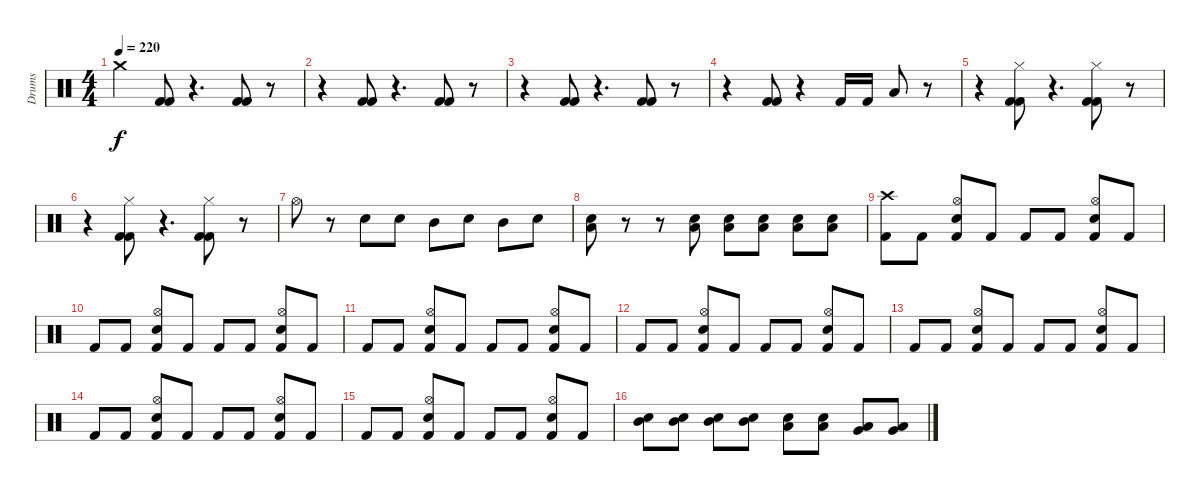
\track ("Drums" "Drums") {instrument percussion}
\staff {score}
\articulation defaults
\ts (4 4)
\tempo 220
\clef neutral
\ks c "Crash medium (hit)".4{dy f}
("Kick (hit) 2" "Kick (hit) 2").8 r.4{d} ("Kick (hit) 2" "Kick (hit) 2").8 r.8 |
r.4 ("Kick (hit) 2" "Kick (hit) 2").8 r.4{d} ("Kick (hit) 2" "Kick (hit) 2").8 r.8 |
r.4 ("Kick (hit) 2" "Kick (hit) 2").8 r.4{d} ("Kick (hit) 2" "Kick (hit) 2").8 r.8 |
r.4 ("Kick (hit) 2" "Kick (hit) 2").8 r.4 "Kick (hit) 2".16 "Kick (hit) 2".16 "Low Floor Tom (hit)".8 r.8 |
r.4 ("Hi-Hat (closed)" "Kick (hit) 2" "Kick (hit) 2").8 r.4{d} ("Hi-Hat (closed)" "Kick (hit) 2" "Kick (hit) 2").8 r.8 |
r.4 ("Hi-Hat (closed)" "Kick (hit) 2" "Kick (hit) 2").8 r.4{d} ("Hi-Hat (closed)" "Kick (hit) 2" "Kick (hit) 2").8 r.8 |
"Hi-Hat (open)".8 r.8 "Electric Snare (hit)".8 "Electric Snare (hit)".8 "Mid Tom (hit)".8 "Electric Snare (hit)".8 "Mid Tom (hit)".8 "Electric Snare (hit)".8 |
("Electric Snare (hit)" "Low Tom (hit)").8 r.8 r.8 ("Low Tom (hit)" "Electric Snare (hit)").8 ("Low Tom (hit)" "Electric Snare (hit)").8 ("Low Tom (hit)" "Electric Snare (hit)").8 ("Low Tom (hit)" "Electric Snare (hit)").8 ("Low Tom (hit)" "Electric Snare (hit)").8 |
("Crash high (hit)" "Kick (hit) 2").8 "Kick (hit) 2".8 ("Electric Snare (hit)" "Hi-Hat (open)" "Kick (hit) 2").8 "Kick (hit) 2".8 "Kick (hit) 2".8 "Kick (hit) 2".8 ("Electric Snare (hit)" "Hi-Hat (open)" "Kick (hit) 2").8 "Kick (hit) 2".8 |
"Kick (hit) 2".8 "Kick (hit) 2".8 ("Electric Snare (hit)" "Hi-Hat (open)" "Kick (hit) 2").8 "Kick (hit) 2".8 "Kick (hit) 2".8 "Kick (hit) 2".8 ("Electric Snare (hit)" "Hi-Hat (open)" "Kick (hit) 2").8 "Kick (hit) 2".8 |
"Kick (hit) 2".8 "Kick (hit) 2".8 ("Electric Snare (hit)" "Hi-Hat (open)" "Kick (hit) 2").8 "Kick (hit) 2".8 "Kick (hit) 2".8 "Kick (hit) 2".8 ("Electric Snare (hit)" "Hi-Hat (open)" "Kick (hit) 2").8 "Kick (hit) 2".8 |
"Kick (hit) 2".8 "Kick (hit) 2".8 ("Electric Snare (hit)" "Hi-Hat (open)" "Kick (hit) 2").8 "Kick (hit) 2".8 "Kick (hit) 2".8 "Kick (hit) 2".8 ("Electric Snare (hit)" "Hi-Hat (open)" "Kick (hit) 2").8 "Kick (hit) 2".8 |
"Kick (hit) 2".8 "Kick (hit) 2".8 ("Electric Snare (hit)" "Hi-Hat (open)" "Kick (hit) 2").8 "Kick (hit) 2".8 "Kick (hit) 2".8 "Kick (hit) 2".8 ("Electric Snare (hit)" "Hi-Hat (open)" "Kick (hit) 2").8 "Kick (hit) 2".8 |
"Kick (hit) 2".8 "Kick (hit) 2".8 ("Electric Snare (hit)" "Hi-Hat (open)" "Kick (hit) 2").8 "Kick (hit) 2".8 "Kick (hit) 2".8 "Kick (hit) 2".8 ("Electric Snare (hit)" "Hi-Hat (open)" "Kick (hit) 2").8 "Kick (hit) 2".8 |
"Kick (hit) 2".8 "Kick (hit) 2".8 ("Electric Snare (hit)" "Hi-Hat (open)" "Kick (hit) 2").8 "Kick (hit) 2".8 "Kick (hit) 2".8 "Kick (hit) 2".8 ("Electric Snare (hit)" "Hi-Hat (open)" "Kick (hit) 2").8 "Kick (hit) 2".8 |
("Electric Snare (hit)" "Mid Tom (hit)").8 ("Electric Snare (hit)" "Mid Tom (hit)").8 ("Electric Snare (hit)" "Mid Tom (hit)").8 ("Electric Snare (hit)" "Mid Tom (hit)").8 ("Electric Snare (hit)" "Low Tom (hit)").8 ("Electric Snare (hit)" "Low Tom (hit)").8 ("Very Low Tom (hit)" "Low Tom (hit)").8 ("Very Low Tom (hit)" "Low Tom (hit)").8
